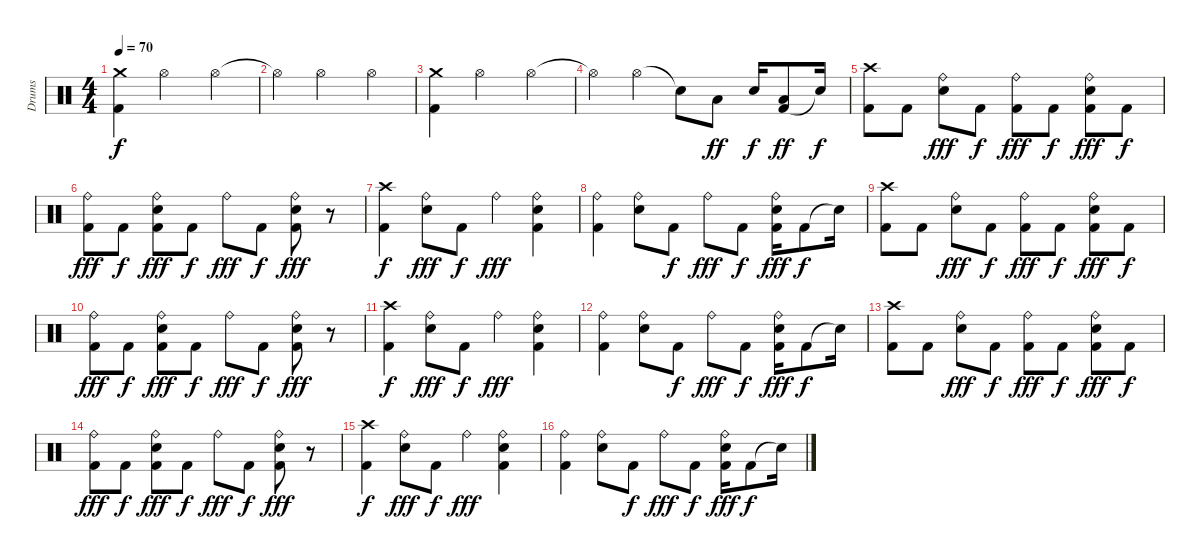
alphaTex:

\track ("Drums" "Drums") {instrument percussion}
\staff {score}
\articulation defaults
\ts (4 4)
\tempo 70
\clef neutral
\ks c
("Kick (hit) 2" "Crash medium (hit)").4{dy f} "Hi-Hat (open)".2 "Hi-Hat (open)".4 |
"Hi-Hat (open)"{t}.4 "Hi-Hat (open)".2 "Hi-Hat (open)".4 |
("Kick (hit) 2" "Crash medium (hit)").4 "Hi-Hat (open)".2 "Hi-Hat (open)".4 |
"Hi-Hat (open)"{t}.4 "Hi-Hat (open)".4 "Snare (hit)"{t}.8 "Low Tom (hit)".8{dy ff} "Electric Snare (hit)".16{dy f} ("Kick (hit) 2" "Low Tom (hit)").8{dy ff} "Snare (hit)"{t}.16{dy f} |
("Kick (hit) 2" "Crash high (hit)").8 "Kick (hit) 2".8 ("Electric Snare (hit)" "Ride (bell)").8{dy fff} "Kick (hit) 2".8{dy f} ("Kick (hit) 2" "Ride (bell)").8{dy fff} "Kick (hit) 2".8{dy f} ("Kick (hit) 2" "Electric Snare (hit)" "Ride (bell)").8{dy fff} "Kick (hit) 2".8{dy f} |
("Kick (hit) 2" "Ride (bell)").8{dy fff} "Kick (hit) 2".8{dy f} ("Kick (hit) 2" "Electric Snare (hit)" "Ride (bell)").8{dy fff} "Kick (hit) 2".8{dy f} "Ride (bell)".8{dy fff} "Kick (hit) 2".8{dy f} ("Kick (hit) 2" "Electric Snare (hit)" "Ride (bell)").8{dy fff} r.8 |
("Kick (hit) 2" "Crash high (hit)").4{dy f} ("Electric Snare (hit)" "Ride (bell)").8{dy fff} "Kick (hit) 2".8{dy f} "Ride (bell)".4{dy fff} ("Kick (hit) 2" "Electric Snare (hit)" "Ride (bell)").4 |
("Kick (hit) 2" "Ride (bell)").4 ("Electric Snare (hit)" "Ride (bell)").8 "Kick (hit) 2".8{dy f} "Ride (bell)".8{dy fff} "Kick (hit) 2".8{dy f} ("Kick (hit) 2" "Electric Snare (hit)" "Ride (bell)").16{dy fff} "Kick (hit) 2".8{dy f} "Snare (hit)"{t}.16 |
("Kick (hit) 2" "Crash high (hit)").8 "Kick (hit) 2".8 ("Electric Snare (hit)" "Ride (bell)").8{dy fff} "Kick (hit) 2".8{dy f} ("Kick (hit) 2" "Ride (bell)").8{dy fff} "Kick (hit) 2".8{dy f} ("Kick (hit) 2" "Electric Snare (hit)" "Ride (bell)").8{dy fff} "Kick (hit) 2".8{dy f} |
("Kick (hit) 2" "Ride (bell)").8{dy fff} "Kick (hit) 2".8{dy f} ("Kick (hit) 2" "Electric Snare (hit)" "Ride (bell)").8{dy fff} "Kick (hit) 2".8{dy f} "Ride (bell)".8{dy fff} "Kick (hit) 2".8{dy f} ("Kick (hit) 2" "Electric Snare (hit)" "Ride (bell)").8{dy fff} r.8 |
("Kick (hit) 2" "Crash high (hit)").4{dy f} ("Electric Snare (hit)" "Ride (bell)").8{dy fff} "Kick (hit) 2".8{dy f} "Ride (bell)".4{dy fff} ("Kick (hit) 2" "Electric Snare (hit)" "Ride (bell)").4 |
("Kick (hit) 2" "Ride (bell)").4 ("Electric Snare (hit)" "Ride (bell)").8 "Kick (hit) 2".8{dy f} "Ride (bell)".8{dy fff} "Kick (hit) 2".8{dy f} ("Kick (hit) 2" "Electric Snare (hit)" "Ride (bell)").16{dy fff} "Kick (hit) 2".8{dy f} "Snare (hit)"{t}.16 |
("Kick (hit) 2" "Crash high (hit)").8 "Kick (hit) 2".8 ("Electric Snare (hit)" "Ride (bell)").8{dy fff} "Kick (hit) 2".8{dy f} ("Kick (hit) 2" "Ride (bell)").8{dy fff} "Kick (hit) 2".8{dy f} ("Kick (hit) 2" "Electric Snare (hit)" "Ride (bell)").8{dy fff} "Kick (hit) 2".8{dy f} |
("Kick (hit) 2" "Ride (bell)").8{dy fff} "Kick (hit) 2".8{dy f} ("Kick (hit) 2" "Electric Snare (hit)" "Ride (bell)").8{dy fff} "Kick (hit) 2".8{dy f} "Ride (bell)".8{dy fff} "Kick (hit) 2".8{dy f} ("Kick (hit) 2" "Electric Snare (hit)" "Ride (bell)").8{dy fff} r.8 |
("Kick (hit) 2" "Crash high (hit)").4{dy f} ("Electric Snare (hit)" "Ride (bell)").8{dy fff} "Kick (hit) 2".8{dy f} "Ride (bell)".4{dy fff} ("Kick (hit) 2" "Electric Snare (hit)" "Ride (bell)").4 |
("Kick (hit) 2" "Ride (bell)").4 ("Electric Snare (hit)" "Ride (bell)").8 "Kick (hit) 2".8{dy f} "Ride (bell)".8{dy fff} "Kick (hit) 2".8{dy f} ("Kick (hit) 2" "Electric Snare (hit)" "Ride (bell)").16{dy fff} "Kick (hit) 2".8{dy f} "Snare (hit)"{t}.16
